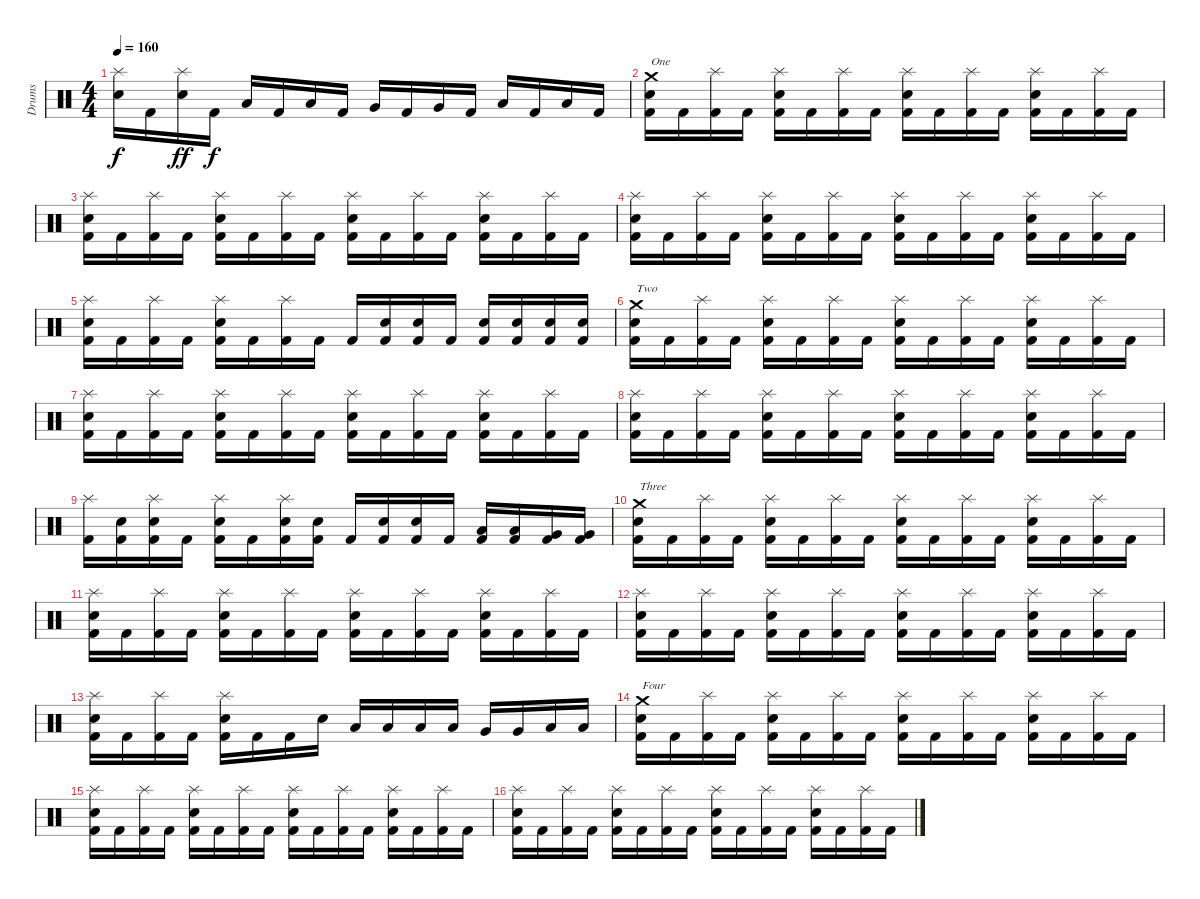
\track ("Drums" "Drums") {instrument percussion}
\staff {score}
\articulation defaults
\ts (4 4)
\tempo 160
\clef neutral
\ks c
("Splash (hit)" "Snare (hit) 2").16{dy f} "Kick (hit) 2".16 ("Splash (hit)" "Snare (hit) 2").16{dy ff} "Kick (hit) 2".16{dy f} "Low Tom (hit)".16 "Kick (hit) 2".16 "Low Tom (hit)".16 "Kick (hit) 2".16 "Very Low Tom (hit)".16 "Kick (hit) 2".16 "Very Low Tom (hit)".16 "Kick (hit) 2".16 "Low Floor Tom (hit)".16 "Kick (hit) 2".16 "Low Floor Tom (hit)".16 "Kick (hit) 2".16 |
("Crash medium (hit)" "Snare (hit) 2" "Kick (hit) 2").16{txt "One"} "Kick (hit) 2".16 ("Splash (hit)" "Kick (hit) 2").16 "Kick (hit) 2".16 ("Splash (hit)" "Snare (hit) 2" "Kick (hit) 2").16 "Kick (hit) 2".16 ("Splash (hit)" "Kick (hit) 2").16 "Kick (hit) 2".16 ("Splash (hit)" "Snare (hit) 2" "Kick (hit) 2").16 "Kick (hit) 2".16 ("Splash (hit)" "Kick (hit) 2").16 "Kick (hit) 2".16 ("Splash (hit)" "Snare (hit) 2" "Kick (hit) 2").16 "Kick (hit) 2".16 ("Splash (hit)" "Kick (hit) 2").16 "Kick (hit) 2".16 |
("Splash (hit)" "Snare (hit) 2" "Kick (hit) 2").16 "Kick (hit) 2".16 ("Splash (hit)" "Kick (hit) 2").16 "Kick (hit) 2".16 ("Splash (hit)" "Snare (hit) 2" "Kick (hit) 2").16 "Kick (hit) 2".16 ("Splash (hit)" "Kick (hit) 2").16 "Kick (hit) 2".16 ("Splash (hit)" "Snare (hit) 2" "Kick (hit) 2").16 "Kick (hit) 2".16 ("Splash (hit)" "Kick (hit) 2").16 "Kick (hit) 2".16 ("Splash (hit)" "Snare (hit) 2" "Kick (hit) 2").16 "Kick (hit) 2".16 ("Splash (hit)" "Kick (hit) 2").16 "Kick (hit) 2".16 |
("Splash (hit)" "Snare (hit) 2" "Kick (hit) 2").16 "Kick (hit) 2".16 ("Splash (hit)" "Kick (hit) 2").16 "Kick (hit) 2".16 ("Splash (hit)" "Snare (hit) 2" "Kick (hit) 2").16 "Kick (hit) 2".16 ("Splash (hit)" "Kick (hit) 2").16 "Kick (hit) 2".16 ("Splash (hit)" "Snare (hit) 2" "Kick (hit) 2").16 "Kick (hit) 2".16 ("Splash (hit)" "Kick (hit) 2").16 "Kick (hit) 2".16 ("Splash (hit)" "Snare (hit) 2" "Kick (hit) 2").16 "Kick (hit) 2".16 ("Splash (hit)" "Kick (hit) 2").16 "Kick (hit) 2".16 |
("Splash (hit)" "Snare (hit) 2" "Kick (hit) 2").16 "Kick (hit) 2".16 ("Splash (hit)" "Kick (hit) 2").16 "Kick (hit) 2".16 ("Splash (hit)" "Snare (hit) 2" "Kick (hit) 2").16 "Kick (hit) 2".16 ("Splash (hit)" "Kick (hit) 2").16 "Kick (hit) 2".16 "Kick (hit) 2".16 ("Snare (hit) 2" "Kick (hit) 2").16 ("Snare (hit) 2" "Kick (hit) 2").16 "Kick (hit) 2".16 ("Snare (hit) 2" "Kick (hit) 2").16 ("Snare (hit) 2" "Kick (hit) 2").16 ("Snare (hit) 2" "Kick (hit) 2").16 ("Snare (hit) 2" "Kick (hit) 2").16 |
("Crash medium (hit)" "Snare (hit) 2" "Kick (hit) 2").16{txt "Two"} "Kick (hit) 2".16 ("Splash (hit)" "Kick (hit) 2").16 "Kick (hit) 2".16 ("Splash (hit)" "Snare (hit) 2" "Kick (hit) 2").16 "Kick (hit) 2".16 ("Splash (hit)" "Kick (hit) 2").16 "Kick (hit) 2".16 ("Splash (hit)" "Snare (hit) 2" "Kick (hit) 2").16 "Kick (hit) 2".16 ("Splash (hit)" "Kick (hit) 2").16 "Kick (hit) 2".16 ("Splash (hit)" "Snare (hit) 2" "Kick (hit) 2").16 "Kick (hit) 2".16 ("Splash (hit)" "Kick (hit) 2").16 "Kick (hit) 2".16 |
("Splash (hit)" "Snare (hit) 2" "Kick (hit) 2").16 "Kick (hit) 2".16 ("Splash (hit)" "Kick (hit) 2").16 "Kick (hit) 2".16 ("Splash (hit)" "Snare (hit) 2" "Kick (hit) 2").16 "Kick (hit) 2".16 ("Splash (hit)" "Kick (hit) 2").16 "Kick (hit) 2".16 ("Splash (hit)" "Snare (hit) 2" "Kick (hit) 2").16 "Kick (hit) 2".16 ("Splash (hit)" "Kick (hit) 2").16 "Kick (hit) 2".16 ("Splash (hit)" "Snare (hit) 2" "Kick (hit) 2").16 "Kick (hit) 2".16 ("Splash (hit)" "Kick (hit) 2").16 "Kick (hit) 2".16 |
("Splash (hit)" "Snare (hit) 2" "Kick (hit) 2").16 "Kick (hit) 2".16 ("Splash (hit)" "Kick (hit) 2").16 "Kick (hit) 2".16 ("Splash (hit)" "Snare (hit) 2" "Kick (hit) 2").16 "Kick (hit) 2".16 ("Splash (hit)" "Kick (hit) 2").16 "Kick (hit) 2".16 ("Splash (hit)" "Snare (hit) 2" "Kick (hit) 2").16 "Kick (hit) 2".16 ("Splash (hit)" "Kick (hit) 2").16 "Kick (hit) 2".16 ("Splash (hit)" "Snare (hit) 2" "Kick (hit) 2").16 "Kick (hit) 2".16 ("Splash (hit)" "Kick (hit) 2").16 "Kick (hit) 2".16 |
("Splash (hit)" "Kick (hit) 2").16 ("Snare (hit) 2" "Kick (hit) 2").16 ("Splash (hit)" "Snare (hit) 2" "Kick (hit) 2").16 "Kick (hit) 2".16 ("Splash (hit)" "Snare (hit) 2" "Kick (hit) 2").16 "Kick (hit) 2".16 ("Splash (hit)" "Snare (hit) 2" "Kick (hit) 2").16 ("Snare (hit) 2" "Kick (hit) 2").16 "Kick (hit) 2".16 ("Snare (hit) 2" "Kick (hit) 2").16 ("Snare (hit) 2" "Kick (hit) 2").16 "Kick (hit) 2".16 ("Low Tom (hit)" "Kick (hit) 2").16 ("Low Tom (hit)" "Kick (hit) 2").16 ("Very Low Tom (hit)" "Kick (hit) 2").16 ("Very Low Tom (hit)" "Kick (hit) 2").16 |
("Crash medium (hit)" "Snare (hit) 2" "Kick (hit) 2").16{txt "Three"} "Kick (hit) 2".16 ("Splash (hit)" "Kick (hit) 2").16 "Kick (hit) 2".16 ("Splash (hit)" "Snare (hit) 2" "Kick (hit) 2").16 "Kick (hit) 2".16 ("Splash (hit)" "Kick (hit) 2").16 "Kick (hit) 2".16 ("Splash (hit)" "Snare (hit) 2" "Kick (hit) 2").16 "Kick (hit) 2".16 ("Splash (hit)" "Kick (hit) 2").16 "Kick (hit) 2".16 ("Splash (hit)" "Snare (hit) 2" "Kick (hit) 2").16 "Kick (hit) 2".16 ("Splash (hit)" "Kick (hit) 2").16 "Kick (hit) 2".16 |
("Splash (hit)" "Snare (hit) 2" "Kick (hit) 2").16 "Kick (hit) 2".16 ("Splash (hit)" "Kick (hit) 2").16 "Kick (hit) 2".16 ("Splash (hit)" "Snare (hit) 2" "Kick (hit) 2").16 "Kick (hit) 2".16 ("Splash (hit)" "Kick (hit) 2").16 "Kick (hit) 2".16 ("Splash (hit)" "Snare (hit) 2" "Kick (hit) 2").16 "Kick (hit) 2".16 ("Splash (hit)" "Kick (hit) 2").16 "Kick (hit) 2".16 ("Splash (hit)" "Snare (hit) 2" "Kick (hit) 2").16 "Kick (hit) 2".16 ("Splash (hit)" "Kick (hit) 2").16 "Kick (hit) 2".16 |
("Splash (hit)" "Snare (hit) 2" "Kick (hit) 2").16 "Kick (hit) 2".16 ("Splash (hit)" "Kick (hit) 2").16 "Kick (hit) 2".16 ("Splash (hit)" "Snare (hit) 2" "Kick (hit) 2").16 "Kick (hit) 2".16 ("Splash (hit)" "Kick (hit) 2").16 "Kick (hit) 2".16 ("Splash (hit)" "Snare (hit) 2" "Kick (hit) 2").16 "Kick (hit) 2".16 ("Splash (hit)" "Kick (hit) 2").16 "Kick (hit) 2".16 ("Splash (hit)" "Snare (hit) 2" "Kick (hit) 2").16 "Kick (hit) 2".16 ("Splash (hit)" "Kick (hit) 2").16 "Kick (hit) 2".16 |
("Splash (hit)" "Snare (hit) 2" "Kick (hit) 2").16 "Kick (hit) 2".16 ("Splash (hit)" "Kick (hit) 2").16 "Kick (hit) 2".16 ("Splash (hit)" "Snare (hit) 2" "Kick (hit) 2").16 "Kick (hit) 2".16 "Kick (hit) 2".16 "Snare (hit) 2".16 "Low Tom (hit)".16 "Low Tom (hit)".16 "Low Tom (hit)".16 "Low Tom (hit)".16 "Very Low Tom (hit)".16 "Very Low Tom (hit)".16 "Low Floor Tom (hit)".16 "Low Floor Tom (hit)".16 |
("Crash medium (hit)" "Snare (hit) 2" "Kick (hit) 2").16{txt "Four"} "Kick (hit) 2".16 ("Splash (hit)" "Kick (hit) 2").16 "Kick (hit) 2".16 ("Splash (hit)" "Snare (hit) 2" "Kick (hit) 2").16 "Kick (hit) 2".16 ("Splash (hit)" "Kick (hit) 2").16 "Kick (hit) 2".16 ("Splash (hit)" "Snare (hit) 2" "Kick (hit) 2").16 "Kick (hit) 2".16 ("Splash (hit)" "Kick (hit) 2").16 "Kick (hit) 2".16 ("Splash (hit)" "Snare (hit) 2" "Kick (hit) 2").16 "Kick (hit) 2".16 ("Splash (hit)" "Kick (hit) 2").16 "Kick (hit) 2".16 |
("Splash (hit)" "Snare (hit) 2" "Kick (hit) 2").16 "Kick (hit) 2".16 ("Splash (hit)" "Kick (hit) 2").16 "Kick (hit) 2".16 ("Splash (hit)" "Snare (hit) 2" "Kick (hit) 2").16 "Kick (hit) 2".16 ("Splash (hit)" "Kick (hit) 2").16 "Kick (hit) 2".16 ("Splash (hit)" "Snare (hit) 2" "Kick (hit) 2").16 "Kick (hit) 2".16 ("Splash (hit)" "Kick (hit) 2").16 "Kick (hit) 2".16 ("Splash (hit)" "Snare (hit) 2" "Kick (hit) 2").16 "Kick (hit) 2".16 ("Splash (hit)" "Kick (hit) 2").16 "Kick (hit) 2".16 |
("Splash (hit)" "Snare (hit) 2" "Kick (hit) 2").16 "Kick (hit) 2".16 ("Splash (hit)" "Kick (hit) 2").16 "Kick (hit) 2".16 ("Splash (hit)" "Snare (hit) 2" "Kick (hit) 2").16 "Kick (hit) 2".16 ("Splash (hit)" "Kick (hit) 2").16 "Kick (hit) 2".16 ("Splash (hit)" "Snare (hit) 2" "Kick (hit) 2").16 "Kick (hit) 2".16 ("Splash (hit)" "Kick (hit) 2").16 "Kick (hit) 2".16 ("Splash (hit)" "Snare (hit) 2" "Kick (hit) 2").16 "Kick (hit) 2".16 ("Splash (hit)" "Kick (hit) 2").16 "Kick (hit) 2".16
